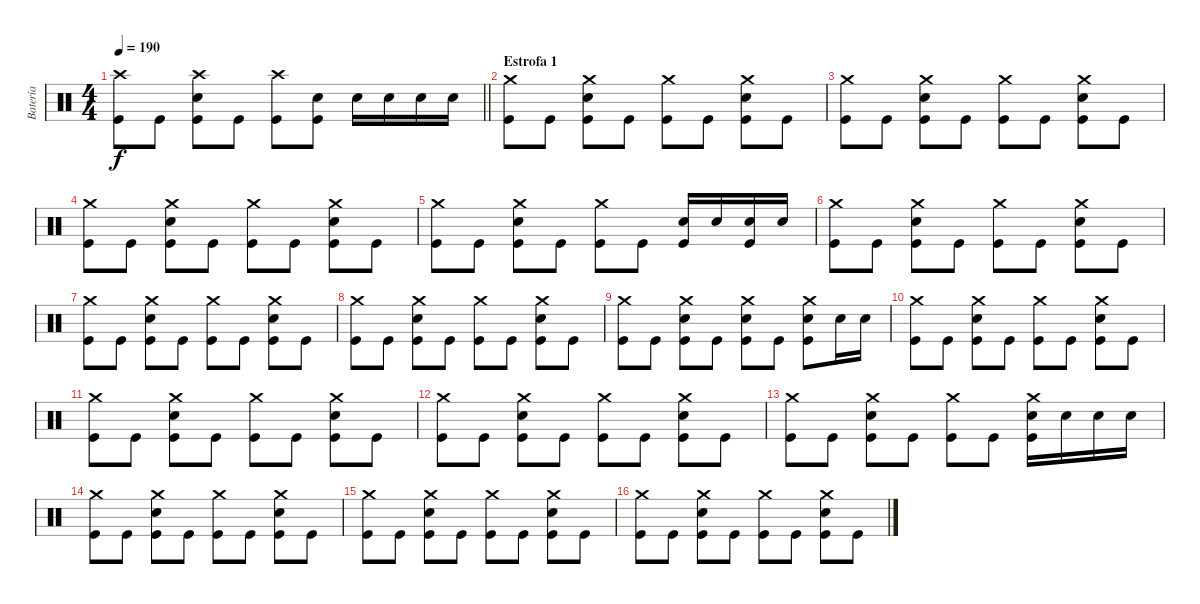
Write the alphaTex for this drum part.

\track ("Batería" "Batería") {instrument percussion}
\staff {score}
\articulation defaults
\ts (4 4)
\tempo 190
\clef neutral
\barLineRight lightlight
\ks c
("Crash high (hit)" "Kick (hit)").8{dy f} "Kick (hit)".8 ("Crash high (hit)" "Electric Snare (hit)" "Kick (hit)").8 "Kick (hit)".8 ("Crash high (hit)" "Kick (hit)").8 ("Electric Snare (hit)" "Kick (hit)").8 "Electric Snare (hit)".16 "Electric Snare (hit)".16 "Electric Snare (hit)".16 "Electric Snare (hit)".16 |
\section ("" "Estrofa 1")
("Crash medium (hit)" "Kick (hit)").8 "Kick (hit)".8 ("Crash medium (hit)" "Electric Snare (hit)" "Kick (hit)").8 "Kick (hit)".8 ("Crash medium (hit)" "Kick (hit)").8 "Kick (hit)".8 ("Crash medium (hit)" "Electric Snare (hit)" "Kick (hit)").8 "Kick (hit)".8 |
("Crash medium (hit)" "Kick (hit)").8 "Kick (hit)".8 ("Crash medium (hit)" "Electric Snare (hit)" "Kick (hit)").8 "Kick (hit)".8 ("Crash medium (hit)" "Kick (hit)").8 "Kick (hit)".8 ("Crash medium (hit)" "Electric Snare (hit)" "Kick (hit)").8 "Kick (hit)".8 |
("Crash medium (hit)" "Kick (hit)").8 "Kick (hit)".8 ("Crash medium (hit)" "Electric Snare (hit)" "Kick (hit)").8 "Kick (hit)".8 ("Crash medium (hit)" "Kick (hit)").8 "Kick (hit)".8 ("Crash medium (hit)" "Electric Snare (hit)" "Kick (hit)").8 "Kick (hit)".8 |
("Crash medium (hit)" "Kick (hit)").8 "Kick (hit)".8 ("Crash medium (hit)" "Electric Snare (hit)" "Kick (hit)").8 "Kick (hit)".8 ("Crash medium (hit)" "Kick (hit)").8 "Kick (hit)".8 ("Electric Snare (hit)" "Kick (hit)").16 "Electric Snare (hit)".16 ("Electric Snare (hit)" "Kick (hit)").16 "Electric Snare (hit)".16 |
("Crash medium (hit)" "Kick (hit)").8 "Kick (hit)".8 ("Crash medium (hit)" "Electric Snare (hit)" "Kick (hit)").8 "Kick (hit)".8 ("Crash medium (hit)" "Kick (hit)").8 "Kick (hit)".8 ("Crash medium (hit)" "Electric Snare (hit)" "Kick (hit)").8 "Kick (hit)".8 |
("Crash medium (hit)" "Kick (hit)").8 "Kick (hit)".8 ("Crash medium (hit)" "Electric Snare (hit)" "Kick (hit)").8 "Kick (hit)".8 ("Crash medium (hit)" "Kick (hit)").8 "Kick (hit)".8 ("Crash medium (hit)" "Electric Snare (hit)" "Kick (hit)").8 "Kick (hit)".8 |
("Crash medium (hit)" "Kick (hit)").8 "Kick (hit)".8 ("Crash medium (hit)" "Electric Snare (hit)" "Kick (hit)").8 "Kick (hit)".8 ("Crash medium (hit)" "Kick (hit)").8 "Kick (hit)".8 ("Crash medium (hit)" "Electric Snare (hit)" "Kick (hit)").8 "Kick (hit)".8 |
("Crash medium (hit)" "Kick (hit)").8 "Kick (hit)".8 ("Crash medium (hit)" "Electric Snare (hit)" "Kick (hit)").8 "Kick (hit)".8 ("Crash medium (hit)" "Electric Snare (hit)" "Kick (hit)").8 "Kick (hit)".8 ("Crash medium (hit)" "Electric Snare (hit)" "Kick (hit)").8 "Electric Snare (hit)".16 "Electric Snare (hit)".16 |
("Crash medium (hit)" "Kick (hit)").8 "Kick (hit)".8 ("Crash medium (hit)" "Electric Snare (hit)" "Kick (hit)").8 "Kick (hit)".8 ("Crash medium (hit)" "Kick (hit)").8 "Kick (hit)".8 ("Crash medium (hit)" "Electric Snare (hit)" "Kick (hit)").8 "Kick (hit)".8 |
("Crash medium (hit)" "Kick (hit)").8 "Kick (hit)".8 ("Crash medium (hit)" "Electric Snare (hit)" "Kick (hit)").8 "Kick (hit)".8 ("Crash medium (hit)" "Kick (hit)").8 "Kick (hit)".8 ("Crash medium (hit)" "Electric Snare (hit)" "Kick (hit)").8 "Kick (hit)".8 |
("Crash medium (hit)" "Kick (hit)").8 "Kick (hit)".8 ("Crash medium (hit)" "Electric Snare (hit)" "Kick (hit)").8 "Kick (hit)".8 ("Crash medium (hit)" "Kick (hit)").8 "Kick (hit)".8 ("Crash medium (hit)" "Electric Snare (hit)" "Kick (hit)").8 "Kick (hit)".8 |
("Crash medium (hit)" "Kick (hit)").8 "Kick (hit)".8 ("Crash medium (hit)" "Electric Snare (hit)" "Kick (hit)").8 "Kick (hit)".8 ("Crash medium (hit)" "Kick (hit)").8 "Kick (hit)".8 ("Crash medium (hit)" "Electric Snare (hit)" "Kick (hit)").16 "Electric Snare (hit)".16 "Electric Snare (hit)".16 "Electric Snare (hit)".16 |
("Crash medium (hit)" "Kick (hit)").8 "Kick (hit)".8 ("Crash medium (hit)" "Electric Snare (hit)" "Kick (hit)").8 "Kick (hit)".8 ("Crash medium (hit)" "Kick (hit)").8 "Kick (hit)".8 ("Crash medium (hit)" "Electric Snare (hit)" "Kick (hit)").8 "Kick (hit)".8 |
("Crash medium (hit)" "Kick (hit)").8 "Kick (hit)".8 ("Crash medium (hit)" "Electric Snare (hit)" "Kick (hit)").8 "Kick (hit)".8 ("Crash medium (hit)" "Kick (hit)").8 "Kick (hit)".8 ("Crash medium (hit)" "Electric Snare (hit)" "Kick (hit)").8 "Kick (hit)".8 |
("Crash medium (hit)" "Kick (hit)").8 "Kick (hit)".8 ("Crash medium (hit)" "Electric Snare (hit)" "Kick (hit)").8 "Kick (hit)".8 ("Crash medium (hit)" "Kick (hit)").8 "Kick (hit)".8 ("Crash medium (hit)" "Electric Snare (hit)" "Kick (hit)").8 "Kick (hit)".8
